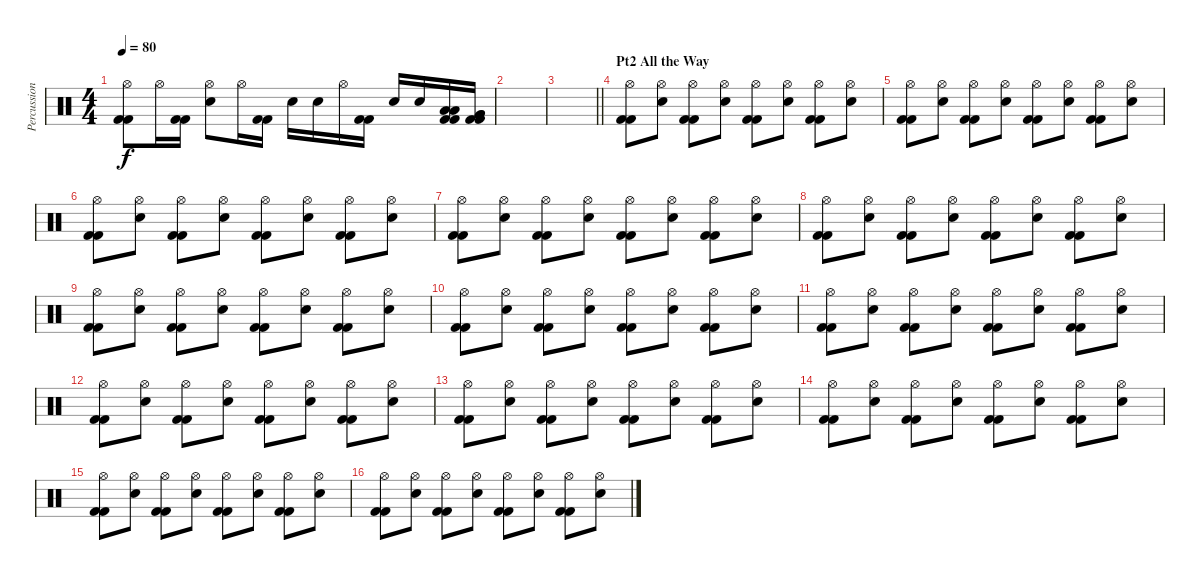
\track ("Percussion" "Percussion") {instrument percussion}
\staff {score}
\articulation defaults
\ts (4 4)
\tempo 80
\clef neutral
\ks c
("Hi-Hat (open)" "Kick (hit) 2" "Kick (hit) 2").8{dy f} "Hi-Hat (open)".16 ("Kick (hit) 2" "Kick (hit) 2").16 ("Hi-Hat (open)" "Electric Snare (hit)").8 "Hi-Hat (open)".16 ("Kick (hit) 2" "Kick (hit) 2").16 "Electric Snare (hit)".16 "Electric Snare (hit)".16 "Hi-Hat (open)".16 ("Kick (hit) 2" "Kick (hit) 2").16 "Electric Snare (hit)".16 "Electric Snare (hit)".16 ("Low Tom (hit)" "Low Tom (hit)" "Kick (hit) 2" "Kick (hit) 2").16 ("Very Low Tom (hit)" "Very Low Tom (hit)" "Kick (hit) 2" "Kick (hit) 2").16 |
|
\barLineRight lightlight
|
\section ("" "Pt2 All the Way")
("Hi-Hat (open)" "Kick (hit) 2" "Kick (hit) 2").8 ("Hi-Hat (open)" "Electric Snare (hit)").8 ("Hi-Hat (open)" "Kick (hit) 2" "Kick (hit) 2").8 ("Hi-Hat (open)" "Electric Snare (hit)").8 ("Hi-Hat (open)" "Kick (hit) 2" "Kick (hit) 2").8 ("Hi-Hat (open)" "Electric Snare (hit)").8 ("Hi-Hat (open)" "Kick (hit) 2" "Kick (hit) 2").8 ("Hi-Hat (open)" "Electric Snare (hit)").8 |
("Hi-Hat (open)" "Kick (hit) 2" "Kick (hit) 2").8 ("Hi-Hat (open)" "Electric Snare (hit)").8 ("Hi-Hat (open)" "Kick (hit) 2" "Kick (hit) 2").8 ("Hi-Hat (open)" "Electric Snare (hit)").8 ("Hi-Hat (open)" "Kick (hit) 2" "Kick (hit) 2").8 ("Hi-Hat (open)" "Electric Snare (hit)").8 ("Hi-Hat (open)" "Kick (hit) 2" "Kick (hit) 2").8 ("Hi-Hat (open)" "Electric Snare (hit)").8 |
("Hi-Hat (open)" "Kick (hit) 2" "Kick (hit) 2").8 ("Hi-Hat (open)" "Electric Snare (hit)").8 ("Hi-Hat (open)" "Kick (hit) 2" "Kick (hit) 2").8 ("Hi-Hat (open)" "Electric Snare (hit)").8 ("Hi-Hat (open)" "Kick (hit) 2" "Kick (hit) 2").8 ("Hi-Hat (open)" "Electric Snare (hit)").8 ("Hi-Hat (open)" "Kick (hit) 2" "Kick (hit) 2").8 ("Hi-Hat (open)" "Electric Snare (hit)").8 |
("Hi-Hat (open)" "Kick (hit) 2" "Kick (hit) 2").8 ("Hi-Hat (open)" "Electric Snare (hit)").8 ("Hi-Hat (open)" "Kick (hit) 2" "Kick (hit) 2").8 ("Hi-Hat (open)" "Electric Snare (hit)").8 ("Hi-Hat (open)" "Kick (hit) 2" "Kick (hit) 2").8 ("Hi-Hat (open)" "Electric Snare (hit)").8 ("Hi-Hat (open)" "Kick (hit) 2" "Kick (hit) 2").8 ("Hi-Hat (open)" "Electric Snare (hit)").8 |
("Hi-Hat (open)" "Kick (hit) 2" "Kick (hit) 2").8 ("Hi-Hat (open)" "Electric Snare (hit)").8 ("Hi-Hat (open)" "Kick (hit) 2" "Kick (hit) 2").8 ("Hi-Hat (open)" "Electric Snare (hit)").8 ("Hi-Hat (open)" "Kick (hit) 2" "Kick (hit) 2").8 ("Hi-Hat (open)" "Electric Snare (hit)").8 ("Hi-Hat (open)" "Kick (hit) 2" "Kick (hit) 2").8 ("Hi-Hat (open)" "Electric Snare (hit)").8 |
("Hi-Hat (open)" "Kick (hit) 2" "Kick (hit) 2").8 ("Hi-Hat (open)" "Electric Snare (hit)").8 ("Hi-Hat (open)" "Kick (hit) 2" "Kick (hit) 2").8 ("Hi-Hat (open)" "Electric Snare (hit)").8 ("Hi-Hat (open)" "Kick (hit) 2" "Kick (hit) 2").8 ("Hi-Hat (open)" "Electric Snare (hit)").8 ("Hi-Hat (open)" "Kick (hit) 2" "Kick (hit) 2").8 ("Hi-Hat (open)" "Electric Snare (hit)").8 |
("Hi-Hat (open)" "Kick (hit) 2" "Kick (hit) 2").8 ("Hi-Hat (open)" "Electric Snare (hit)").8 ("Hi-Hat (open)" "Kick (hit) 2" "Kick (hit) 2").8 ("Hi-Hat (open)" "Electric Snare (hit)").8 ("Hi-Hat (open)" "Kick (hit) 2" "Kick (hit) 2").8 ("Hi-Hat (open)" "Electric Snare (hit)").8 ("Hi-Hat (open)" "Kick (hit) 2" "Kick (hit) 2").8 ("Hi-Hat (open)" "Electric Snare (hit)").8 |
("Hi-Hat (open)" "Kick (hit) 2" "Kick (hit) 2").8 ("Hi-Hat (open)" "Electric Snare (hit)").8 ("Hi-Hat (open)" "Kick (hit) 2" "Kick (hit) 2").8 ("Hi-Hat (open)" "Electric Snare (hit)").8 ("Hi-Hat (open)" "Kick (hit) 2" "Kick (hit) 2").8 ("Hi-Hat (open)" "Electric Snare (hit)").8 ("Hi-Hat (open)" "Kick (hit) 2" "Kick (hit) 2").8 ("Hi-Hat (open)" "Electric Snare (hit)").8 |
("Hi-Hat (open)" "Kick (hit) 2" "Kick (hit) 2").8 ("Hi-Hat (open)" "Electric Snare (hit)").8 ("Hi-Hat (open)" "Kick (hit) 2" "Kick (hit) 2").8 ("Hi-Hat (open)" "Electric Snare (hit)").8 ("Hi-Hat (open)" "Kick (hit) 2" "Kick (hit) 2").8 ("Hi-Hat (open)" "Electric Snare (hit)").8 ("Hi-Hat (open)" "Kick (hit) 2" "Kick (hit) 2").8 ("Hi-Hat (open)" "Electric Snare (hit)").8 |
("Hi-Hat (open)" "Kick (hit) 2" "Kick (hit) 2").8 ("Hi-Hat (open)" "Electric Snare (hit)").8 ("Hi-Hat (open)" "Kick (hit) 2" "Kick (hit) 2").8 ("Hi-Hat (open)" "Electric Snare (hit)").8 ("Hi-Hat (open)" "Kick (hit) 2" "Kick (hit) 2").8 ("Hi-Hat (open)" "Electric Snare (hit)").8 ("Hi-Hat (open)" "Kick (hit) 2" "Kick (hit) 2").8 ("Hi-Hat (open)" "Electric Snare (hit)").8 |
("Hi-Hat (open)" "Kick (hit) 2" "Kick (hit) 2").8 ("Hi-Hat (open)" "Electric Snare (hit)").8 ("Hi-Hat (open)" "Kick (hit) 2" "Kick (hit) 2").8 ("Hi-Hat (open)" "Electric Snare (hit)").8 ("Hi-Hat (open)" "Kick (hit) 2" "Kick (hit) 2").8 ("Hi-Hat (open)" "Electric Snare (hit)").8 ("Hi-Hat (open)" "Kick (hit) 2" "Kick (hit) 2").8 ("Hi-Hat (open)" "Electric Snare (hit)").8 |
("Hi-Hat (open)" "Kick (hit) 2" "Kick (hit) 2").8 ("Hi-Hat (open)" "Electric Snare (hit)").8 ("Hi-Hat (open)" "Kick (hit) 2" "Kick (hit) 2").8 ("Hi-Hat (open)" "Electric Snare (hit)").8 ("Hi-Hat (open)" "Kick (hit) 2" "Kick (hit) 2").8 ("Hi-Hat (open)" "Electric Snare (hit)").8 ("Hi-Hat (open)" "Kick (hit) 2" "Kick (hit) 2").8 ("Hi-Hat (open)" "Electric Snare (hit)").8 |
("Hi-Hat (open)" "Kick (hit) 2" "Kick (hit) 2").8 ("Hi-Hat (open)" "Electric Snare (hit)").8 ("Hi-Hat (open)" "Kick (hit) 2" "Kick (hit) 2").8 ("Hi-Hat (open)" "Electric Snare (hit)").8 ("Hi-Hat (open)" "Kick (hit) 2" "Kick (hit) 2").8 ("Hi-Hat (open)" "Electric Snare (hit)").8 ("Hi-Hat (open)" "Kick (hit) 2" "Kick (hit) 2").8 ("Hi-Hat (open)" "Electric Snare (hit)").8
